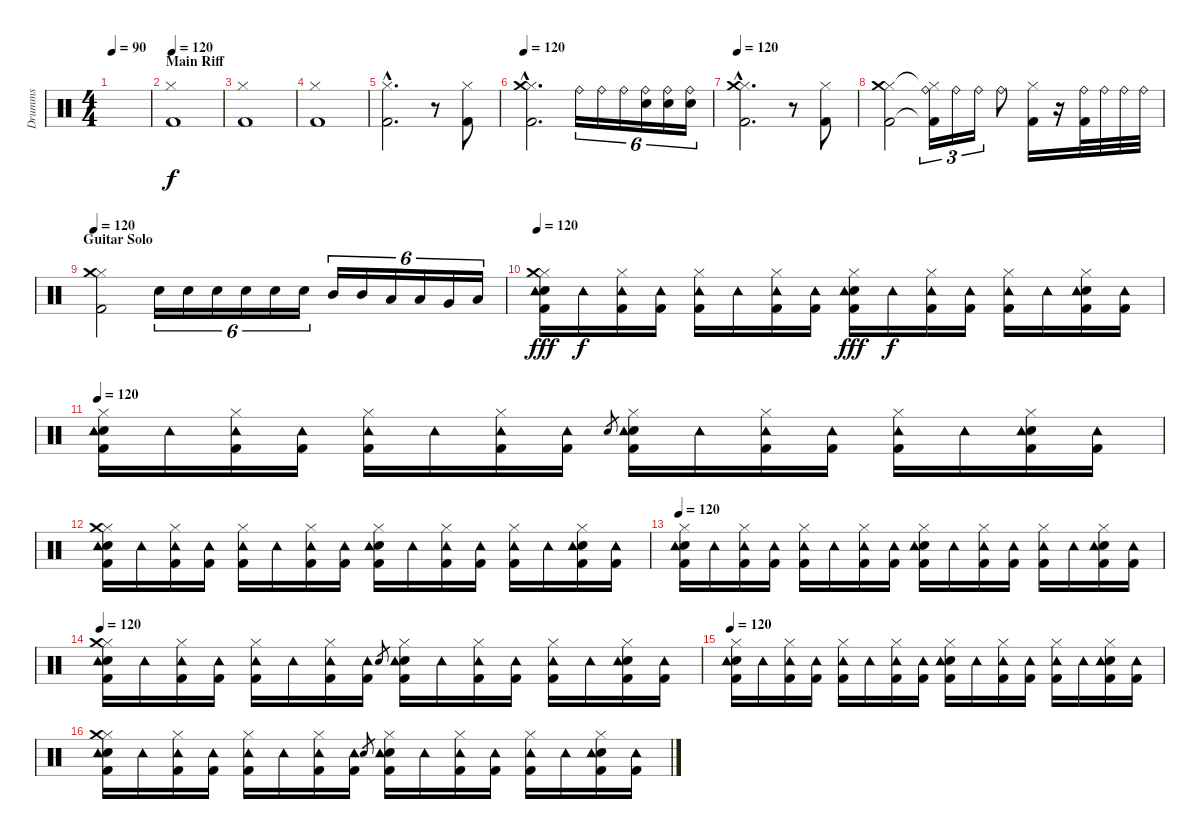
\track ("Drumms" "Drumms") {instrument percussion}
\staff {score}
\articulation defaults
\ts (4 4)
\tempo 90
\clef neutral
\ks c
|
\section ("" "Main Riff")
\tempo 120
("Hi-Hat (closed)" "Kick (hit) 2").1 |
("Hi-Hat (closed)" "Kick (hit) 2").1 |
("Hi-Hat (closed)" "Kick (hit) 2").1 |
("Hi-Hat (closed)"{hac} "Kick (hit) 2"{hac}).2{d} r.8 ("Hi-Hat (closed)" "Kick (hit) 2").8 |
\tempo 120
("Hi-Hat (closed)"{hac} "Kick (hit) 2"{hac} "Crash medium (hit)"{hac}).2{d} "Ride (bell)".16{tu (6 4)} "Ride (bell)".16{tu (6 4)} "Ride (bell)".16{tu (6 4)} ("Ride (bell)" "Snare (hit) 2").16{tu (6 4)} ("Ride (bell)" "Snare (hit) 2").16{tu (6 4)} ("Ride (bell)" "Snare (hit) 2").16{tu (6 4)} |
\tempo 120
("Hi-Hat (closed)"{hac} "Kick (hit) 2"{hac} "Crash medium (hit)"{hac}).2{d} r.8 ("Hi-Hat (closed)" "Kick (hit) 2").8 |
("Hi-Hat (closed)" "Kick (hit) 2" "Crash medium (hit)").2 ("Hi-Hat (closed)"{t} "Kick (hit) 2"{t} "Ride (bell)").16{tu (3 2)} "Ride (bell)".16{tu (3 2)} "Ride (bell)".16{tu (3 2)} "Ride (bell)".8 ("Hi-Hat (closed)" "Kick (hit) 2").16 r.16 ("Ride (bell)" "Kick (hit) 2").32 "Ride (bell)".32 "Ride (bell)".32 "Ride (bell)".32 |
\section ("" "Guitar Solo")
\tempo 120
("Hi-Hat (closed)" "Kick (hit) 2" "Crash medium (hit)").2 "Snare (hit) 2".16{tu (6 4)} "Snare (hit) 2".16{tu (6 4)} "Snare (hit) 2".16{tu (6 4)} "Snare (hit) 2".16{tu (6 4)} "Snare (hit) 2".16{tu (6 4)} "Snare (hit) 2".16{tu (6 4)} "Mid Tom (hit)".16{tu (6 4)} "Mid Tom (hit)".16{tu (6 4)} "Low Tom (hit)".16{tu (6 4)} "Low Tom (hit)".16{tu (6 4)} "Very Low Tom (hit)".16{tu (6 4)} "Low Floor Tom (hit)".16{tu (6 4)} |
\tempo 120
("Hi-Hat (closed)" "Snare (hit) 2" "Crash medium (hit)" "Kick (hit) 2" "Tambourine (hit)").16{dy fff} "Tambourine (hit)".16{dy f} ("Hi-Hat (closed)" "Kick (hit) 2" "Tambourine (hit)").16 ("Kick (hit) 2" "Tambourine (hit)").16 ("Hi-Hat (closed)" "Kick (hit) 2" "Tambourine (hit)").16 "Tambourine (hit)".16 ("Hi-Hat (closed)" "Kick (hit) 2" "Tambourine (hit)").16 ("Kick (hit) 2" "Tambourine (hit)").16 ("Hi-Hat (closed)" "Snare (hit) 2" "Kick (hit) 2" "Tambourine (hit)").16{dy fff} "Tambourine (hit)".16{dy f} ("Hi-Hat (closed)" "Kick (hit) 2" "Tambourine (hit)").16 ("Kick (hit) 2" "Tambourine (hit)").16 ("Hi-Hat (closed)" "Kick (hit) 2" "Tambourine (hit)").16 "Tambourine (hit)".16 ("Hi-Hat (closed)" "Snare (hit) 2" "Kick (hit) 2" "Tambourine (hit)").16 ("Kick (hit) 2" "Tambourine (hit)").16 |
\tempo 120
("Hi-Hat (closed)" "Snare (hit) 2" "Kick (hit) 2" "Tambourine (hit)").16 "Tambourine (hit)".16 ("Hi-Hat (closed)" "Kick (hit) 2" "Tambourine (hit)").16 ("Kick (hit) 2" "Tambourine (hit)").16 ("Hi-Hat (closed)" "Kick (hit) 2" "Tambourine (hit)").16 "Tambourine (hit)".16 ("Hi-Hat (closed)" "Kick (hit) 2" "Tambourine (hit)").16 ("Kick (hit) 2" "Tambourine (hit)").16 "Snare (hit) 2".8{gr} ("Hi-Hat (closed)" "Snare (hit) 2" "Kick (hit) 2" "Tambourine (hit)").16 "Tambourine (hit)".16 ("Hi-Hat (closed)" "Kick (hit) 2" "Tambourine (hit)").16 ("Kick (hit) 2" "Tambourine (hit)").16 ("Hi-Hat (closed)" "Kick (hit) 2" "Tambourine (hit)").16 "Tambourine (hit)".16 ("Hi-Hat (closed)" "Snare (hit) 2" "Kick (hit) 2" "Tambourine (hit)").16 ("Kick (hit) 2" "Tambourine (hit)").16 |
("Hi-Hat (closed)" "Snare (hit) 2" "Crash medium (hit)" "Kick (hit) 2" "Tambourine (hit)").16 "Tambourine (hit)".16 ("Hi-Hat (closed)" "Kick (hit) 2" "Tambourine (hit)").16 ("Kick (hit) 2" "Tambourine (hit)").16 ("Hi-Hat (closed)" "Kick (hit) 2" "Tambourine (hit)").16 "Tambourine (hit)".16 ("Hi-Hat (closed)" "Kick (hit) 2" "Tambourine (hit)").16 ("Kick (hit) 2" "Tambourine (hit)").16 ("Hi-Hat (closed)" "Snare (hit) 2" "Kick (hit) 2" "Tambourine (hit)").16 "Tambourine (hit)".16 ("Hi-Hat (closed)" "Kick (hit) 2" "Tambourine (hit)").16 ("Kick (hit) 2" "Tambourine (hit)").16 ("Hi-Hat (closed)" "Kick (hit) 2" "Tambourine (hit)").16 "Tambourine (hit)".16 ("Hi-Hat (closed)" "Snare (hit) 2" "Kick (hit) 2" "Tambourine (hit)").16 ("Kick (hit) 2" "Tambourine (hit)").16 |
\tempo 120
("Hi-Hat (closed)" "Snare (hit) 2" "Kick (hit) 2" "Tambourine (hit)").16 "Tambourine (hit)".16 ("Hi-Hat (closed)" "Kick (hit) 2" "Tambourine (hit)").16 ("Kick (hit) 2" "Tambourine (hit)").16 ("Hi-Hat (closed)" "Kick (hit) 2" "Tambourine (hit)").16 "Tambourine (hit)".16 ("Hi-Hat (closed)" "Kick (hit) 2" "Tambourine (hit)").16 ("Kick (hit) 2" "Tambourine (hit)").16 ("Hi-Hat (closed)" "Snare (hit) 2" "Kick (hit) 2" "Tambourine (hit)").16 "Tambourine (hit)".16 ("Hi-Hat (closed)" "Kick (hit) 2" "Tambourine (hit)").16 ("Kick (hit) 2" "Tambourine (hit)").16 ("Hi-Hat (closed)" "Kick (hit) 2" "Tambourine (hit)").16 "Tambourine (hit)".16 ("Hi-Hat (closed)" "Snare (hit) 2" "Kick (hit) 2" "Tambourine (hit)").16 ("Kick (hit) 2" "Tambourine (hit)").16 |
\tempo 120
("Hi-Hat (closed)" "Snare (hit) 2" "Crash medium (hit)" "Kick (hit) 2" "Tambourine (hit)").16 "Tambourine (hit)".16 ("Hi-Hat (closed)" "Kick (hit) 2" "Tambourine (hit)").16 ("Kick (hit) 2" "Tambourine (hit)").16 ("Hi-Hat (closed)" "Kick (hit) 2" "Tambourine (hit)").16 "Tambourine (hit)".16 ("Hi-Hat (closed)" "Kick (hit) 2" "Tambourine (hit)").16 ("Kick (hit) 2" "Tambourine (hit)").16 "Snare (hit) 2".8{gr} ("Hi-Hat (closed)" "Snare (hit) 2" "Kick (hit) 2" "Tambourine (hit)").16 "Tambourine (hit)".16 ("Hi-Hat (closed)" "Kick (hit) 2" "Tambourine (hit)").16 ("Kick (hit) 2" "Tambourine (hit)").16 ("Hi-Hat (closed)" "Kick (hit) 2" "Tambourine (hit)").16 "Tambourine (hit)".16 ("Hi-Hat (closed)" "Snare (hit) 2" "Kick (hit) 2" "Tambourine (hit)").16 ("Kick (hit) 2" "Tambourine (hit)").16 |
\tempo 120
("Hi-Hat (closed)" "Snare (hit) 2" "Kick (hit) 2" "Tambourine (hit)").16 "Tambourine (hit)".16 ("Hi-Hat (closed)" "Kick (hit) 2" "Tambourine (hit)").16 ("Kick (hit) 2" "Tambourine (hit)").16 ("Hi-Hat (closed)" "Kick (hit) 2" "Tambourine (hit)").16 "Tambourine (hit)".16 ("Hi-Hat (closed)" "Kick (hit) 2" "Tambourine (hit)").16 ("Kick (hit) 2" "Tambourine (hit)").16 ("Hi-Hat (closed)" "Snare (hit) 2" "Kick (hit) 2" "Tambourine (hit)").16 "Tambourine (hit)".16 ("Hi-Hat (closed)" "Kick (hit) 2" "Tambourine (hit)").16 ("Kick (hit) 2" "Tambourine (hit)").16 ("Hi-Hat (closed)" "Kick (hit) 2" "Tambourine (hit)").16 "Tambourine (hit)".16 ("Hi-Hat (closed)" "Snare (hit) 2" "Kick (hit) 2" "Tambourine (hit)").16 ("Kick (hit) 2" "Tambourine (hit)").16 |
("Hi-Hat (closed)" "Snare (hit) 2" "Crash medium (hit)" "Kick (hit) 2" "Tambourine (hit)").16 "Tambourine (hit)".16 ("Hi-Hat (closed)" "Kick (hit) 2" "Tambourine (hit)").16 ("Kick (hit) 2" "Tambourine (hit)").16 ("Hi-Hat (closed)" "Kick (hit) 2" "Tambourine (hit)").16 "Tambourine (hit)".16 ("Hi-Hat (closed)" "Kick (hit) 2" "Tambourine (hit)").16 ("Kick (hit) 2" "Tambourine (hit)").16 "Snare (hit) 2".8{gr} ("Hi-Hat (closed)" "Snare (hit) 2" "Kick (hit) 2" "Tambourine (hit)").16 "Tambourine (hit)".16 ("Hi-Hat (closed)" "Kick (hit) 2" "Tambourine (hit)").16 ("Kick (hit) 2" "Tambourine (hit)").16 ("Hi-Hat (closed)" "Kick (hit) 2" "Tambourine (hit)").16 "Tambourine (hit)".16 ("Hi-Hat (closed)" "Snare (hit) 2" "Kick (hit) 2" "Tambourine (hit)").16 ("Kick (hit) 2" "Tambourine (hit)").16
